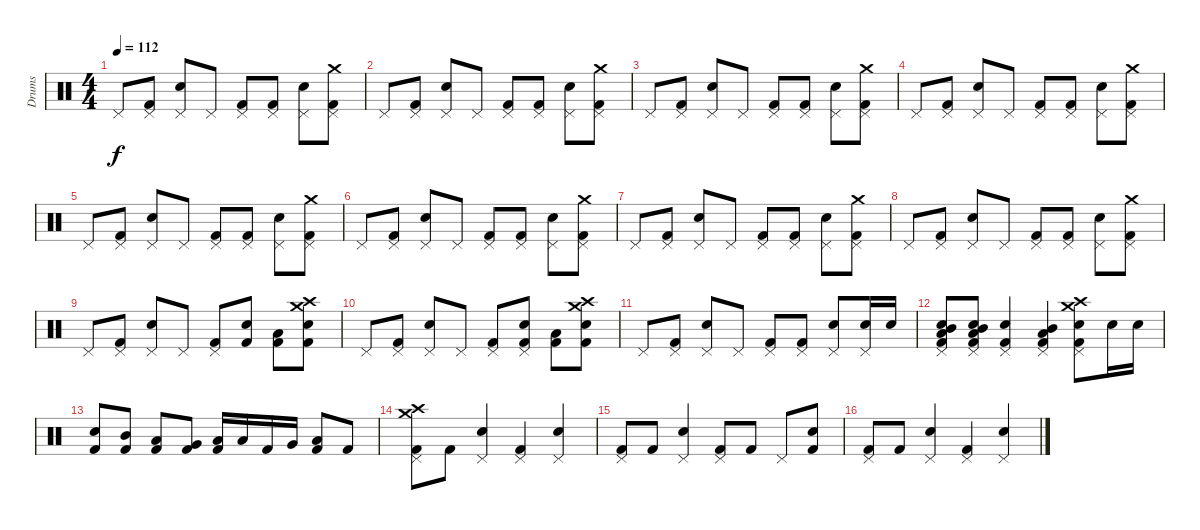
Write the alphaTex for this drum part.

\track ("Drums" "Drums") {instrument percussion}
\staff {score}
\articulation defaults
\ts (4 4)
\tempo 112
\clef neutral
\ks c "Pedal Hi-Hat (hit)".8{dy f}
("Pedal Hi-Hat (hit)" "Kick (hit) 2").8 ("Pedal Hi-Hat (hit)" "Snare (hit) 2").8 "Pedal Hi-Hat (hit)".8 ("Pedal Hi-Hat (hit)" "Kick (hit) 2").8 ("Pedal Hi-Hat (hit)" "Kick (hit) 2").8 ("Pedal Hi-Hat (hit)" "Snare (hit) 2").8 ("Pedal Hi-Hat (hit)" "Crash medium (hit)" "Kick (hit) 2").8 |
"Pedal Hi-Hat (hit)".8 ("Pedal Hi-Hat (hit)" "Kick (hit) 2").8 ("Pedal Hi-Hat (hit)" "Snare (hit) 2").8 "Pedal Hi-Hat (hit)".8 ("Pedal Hi-Hat (hit)" "Kick (hit) 2").8 ("Pedal Hi-Hat (hit)" "Kick (hit) 2").8 ("Pedal Hi-Hat (hit)" "Snare (hit) 2").8 ("Pedal Hi-Hat (hit)" "Crash medium (hit)" "Kick (hit) 2").8 |
"Pedal Hi-Hat (hit)".8 ("Pedal Hi-Hat (hit)" "Kick (hit) 2").8 ("Pedal Hi-Hat (hit)" "Snare (hit) 2").8 "Pedal Hi-Hat (hit)".8 ("Pedal Hi-Hat (hit)" "Kick (hit) 2").8 ("Pedal Hi-Hat (hit)" "Kick (hit) 2").8 ("Pedal Hi-Hat (hit)" "Snare (hit) 2").8 ("Pedal Hi-Hat (hit)" "Crash medium (hit)" "Kick (hit) 2").8 |
"Pedal Hi-Hat (hit)".8 ("Pedal Hi-Hat (hit)" "Kick (hit) 2").8 ("Pedal Hi-Hat (hit)" "Snare (hit) 2").8 "Pedal Hi-Hat (hit)".8 ("Pedal Hi-Hat (hit)" "Kick (hit) 2").8 ("Pedal Hi-Hat (hit)" "Kick (hit) 2").8 ("Pedal Hi-Hat (hit)" "Snare (hit) 2").8 ("Pedal Hi-Hat (hit)" "Kick (hit) 2" "Crash medium (hit)").8 |
"Pedal Hi-Hat (hit)".8 ("Pedal Hi-Hat (hit)" "Kick (hit) 2").8 ("Pedal Hi-Hat (hit)" "Snare (hit) 2").8 "Pedal Hi-Hat (hit)".8 ("Pedal Hi-Hat (hit)" "Kick (hit) 2").8 ("Pedal Hi-Hat (hit)" "Kick (hit) 2").8 ("Pedal Hi-Hat (hit)" "Snare (hit) 2").8 ("Pedal Hi-Hat (hit)" "Kick (hit) 2" "Crash medium (hit)").8 |
"Pedal Hi-Hat (hit)".8 ("Pedal Hi-Hat (hit)" "Kick (hit) 2").8 ("Pedal Hi-Hat (hit)" "Snare (hit) 2").8 "Pedal Hi-Hat (hit)".8 ("Pedal Hi-Hat (hit)" "Kick (hit) 2").8 ("Kick (hit) 2" "Pedal Hi-Hat (hit)").8 ("Pedal Hi-Hat (hit)" "Snare (hit) 2").8 ("Pedal Hi-Hat (hit)" "Kick (hit) 2" "Crash medium (hit)").8 |
"Pedal Hi-Hat (hit)".8 ("Pedal Hi-Hat (hit)" "Kick (hit) 2").8 ("Pedal Hi-Hat (hit)" "Snare (hit) 2").8 "Pedal Hi-Hat (hit)".8 ("Pedal Hi-Hat (hit)" "Kick (hit) 2").8 ("Pedal Hi-Hat (hit)" "Kick (hit) 2").8 ("Pedal Hi-Hat (hit)" "Snare (hit) 2").8 ("Pedal Hi-Hat (hit)" "Kick (hit) 2" "Crash medium (hit)").8 |
"Pedal Hi-Hat (hit)".8 ("Pedal Hi-Hat (hit)" "Kick (hit) 2").8 ("Pedal Hi-Hat (hit)" "Snare (hit) 2").8 "Pedal Hi-Hat (hit)".8 ("Pedal Hi-Hat (hit)" "Kick (hit) 2").8 ("Pedal Hi-Hat (hit)" "Kick (hit) 2").8 ("Pedal Hi-Hat (hit)" "Snare (hit) 2").8 ("Pedal Hi-Hat (hit)" "Kick (hit) 2" "Crash medium (hit)").8 |
"Pedal Hi-Hat (hit)".8 ("Kick (hit) 2" "Pedal Hi-Hat (hit)").8 ("Snare (hit) 2" "Pedal Hi-Hat (hit)").8 "Pedal Hi-Hat (hit)".8 ("Kick (hit) 2" "Pedal Hi-Hat (hit)").8 ("Kick (hit) 2" "Snare (hit) 2").8 ("Kick (hit) 2" "Low Tom (hit)").8 ("Crash medium (hit)" "Kick (hit) 2" "Snare (hit) 2" "Crash high (hit)").8 |
"Pedal Hi-Hat (hit)".8 ("Pedal Hi-Hat (hit)" "Kick (hit) 2").8 ("Pedal Hi-Hat (hit)" "Snare (hit) 2").8 "Pedal Hi-Hat (hit)".8 ("Pedal Hi-Hat (hit)" "Kick (hit) 2").8 ("Pedal Hi-Hat (hit)" "Snare (hit) 2" "Kick (hit) 2").8 ("Low Tom (hit)" "Kick (hit) 2").8 ("Crash high (hit)" "Kick (hit) 2" "Snare (hit) 2" "Crash medium (hit)").8 |
"Pedal Hi-Hat (hit)".8 ("Pedal Hi-Hat (hit)" "Kick (hit) 2").8 ("Pedal Hi-Hat (hit)" "Snare (hit) 2").8 "Pedal Hi-Hat (hit)".8 ("Pedal Hi-Hat (hit)" "Kick (hit) 2").8 ("Pedal Hi-Hat (hit)" "Kick (hit) 2").8 ("Pedal Hi-Hat (hit)" "Snare (hit) 2").8 ("Snare (hit) 2" "Pedal Hi-Hat (hit)").16 "Snare (hit) 2".16 |
("Snare (hit) 2" "Pedal Hi-Hat (hit)" "Low Tom (hit)" "Mid Tom (hit)" "Kick (hit) 2").8 ("Snare (hit) 2" "Pedal Hi-Hat (hit)" "Low Tom (hit)" "Mid Tom (hit)" "Kick (hit) 2").8 ("Snare (hit) 2" "Pedal Hi-Hat (hit)" "Kick (hit) 2").4 ("Low Tom (hit)" "Mid Tom (hit)" "Pedal Hi-Hat (hit)" "Kick (hit) 2").4 ("Pedal Hi-Hat (hit)" "Crash high (hit)" "Crash medium (hit)" "Snare (hit) 2" "Kick (hit) 2").8 "Snare (hit) 2".16 "Snare (hit) 2".16 |
("Kick (hit) 2" "Snare (hit) 2").8 ("Kick (hit) 2" "Mid Tom (hit)").8 ("Kick (hit) 2" "Low Tom (hit)").8 ("Kick (hit) 2" "Very Low Tom (hit)").8 ("Kick (hit) 2" "Low Tom (hit)").16 "Low Tom (hit)".16 "Kick (hit) 2".16 "Very Low Tom (hit)".16 ("Kick (hit) 2" "Low Floor Tom (hit)").8 "Kick (hit) 2".8 |
("Pedal Hi-Hat (hit)" "Crash high (hit)" "Crash medium (hit)" "Kick (hit) 2").8 "Kick (hit) 2".8 ("Pedal Hi-Hat (hit)" "Snare (hit) 2").4 ("Pedal Hi-Hat (hit)" "Kick (hit) 2").4 ("Pedal Hi-Hat (hit)" "Snare (hit) 2").4 |
("Pedal Hi-Hat (hit)" "Kick (hit) 2").8 "Kick (hit) 2".8 ("Pedal Hi-Hat (hit)" "Snare (hit) 2").4 ("Pedal Hi-Hat (hit)" "Kick (hit) 2").8 "Kick (hit) 2".8 "Pedal Hi-Hat (hit)".8 ("Snare (hit) 2" "Kick (hit) 2").8 |
("Pedal Hi-Hat (hit)" "Kick (hit) 2").8 "Kick (hit) 2".8 ("Pedal Hi-Hat (hit)" "Snare (hit) 2").4 ("Pedal Hi-Hat (hit)" "Kick (hit) 2").4 ("Pedal Hi-Hat (hit)" "Snare (hit) 2").4
